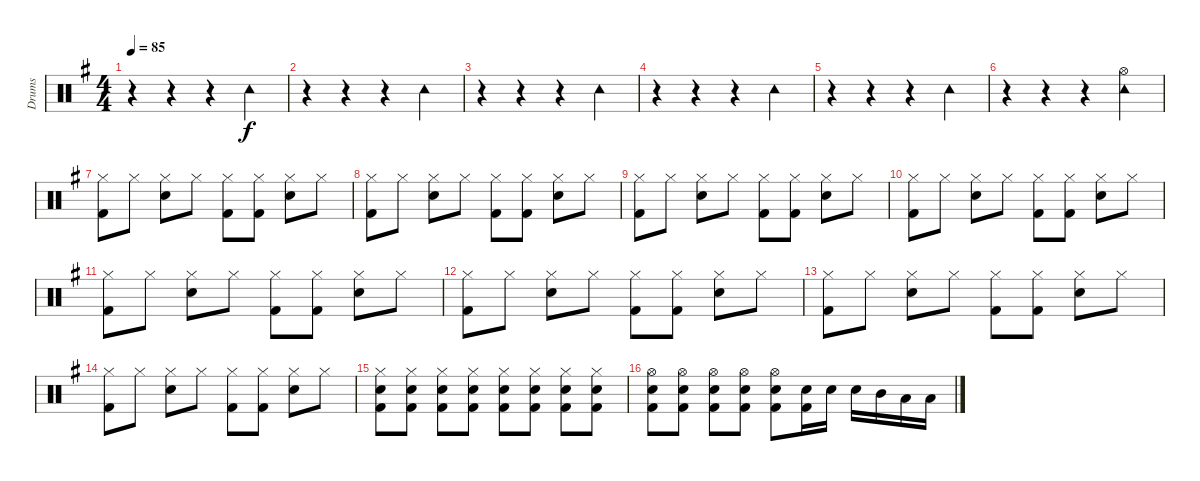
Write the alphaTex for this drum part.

\track ("Drums" "Drums") {instrument percussion}
\staff {score}
\articulation defaults
\ts (4 4)
\tempo 85
\clef neutral
\ks g
r.4{dy f} r.4 r.4 "Tambourine (hit)".4 |
r.4 r.4 r.4 "Tambourine (hit)".4 |
r.4 r.4 r.4 "Tambourine (hit)".4 |
r.4 r.4 r.4 "Tambourine (hit)".4 |
r.4 r.4 r.4 "Tambourine (hit)".4 |
r.4{volume 12} r.4 r.4 ("Hi-Hat (open)" "Tambourine (hit)").4 |
("Hi-Hat (closed)" "Kick (hit) 2").8 "Hi-Hat (closed)".8 ("Hi-Hat (closed)" "Snare (hit) 2").8 "Hi-Hat (closed)".8 ("Hi-Hat (closed)" "Kick (hit) 2").8 ("Hi-Hat (closed)" "Kick (hit) 2").8 ("Hi-Hat (closed)" "Snare (hit) 2").8 "Hi-Hat (closed)".8 |
("Hi-Hat (closed)" "Kick (hit) 2").8 "Hi-Hat (closed)".8 ("Hi-Hat (closed)" "Snare (hit) 2").8 "Hi-Hat (closed)".8 ("Hi-Hat (closed)" "Kick (hit) 2").8 ("Hi-Hat (closed)" "Kick (hit) 2").8 ("Hi-Hat (closed)" "Snare (hit) 2").8 "Hi-Hat (closed)".8 |
("Hi-Hat (closed)" "Kick (hit) 2").8 "Hi-Hat (closed)".8 ("Hi-Hat (closed)" "Snare (hit) 2").8 "Hi-Hat (closed)".8 ("Hi-Hat (closed)" "Kick (hit) 2").8 ("Hi-Hat (closed)" "Kick (hit) 2").8 ("Hi-Hat (closed)" "Snare (hit) 2").8 "Hi-Hat (closed)".8 |
("Hi-Hat (closed)" "Kick (hit) 2").8 "Hi-Hat (closed)".8 ("Hi-Hat (closed)" "Snare (hit) 2").8 "Hi-Hat (closed)".8 ("Hi-Hat (closed)" "Kick (hit) 2").8 ("Hi-Hat (closed)" "Kick (hit) 2").8 ("Hi-Hat (closed)" "Snare (hit) 2").8 "Hi-Hat (closed)".8 |
("Hi-Hat (closed)" "Kick (hit) 2").8 "Hi-Hat (closed)".8 ("Hi-Hat (closed)" "Snare (hit) 2").8 "Hi-Hat (closed)".8 ("Hi-Hat (closed)" "Kick (hit) 2").8 ("Hi-Hat (closed)" "Kick (hit) 2").8 ("Hi-Hat (closed)" "Snare (hit) 2").8 "Hi-Hat (closed)".8 |
("Hi-Hat (closed)" "Kick (hit) 2").8 "Hi-Hat (closed)".8 ("Hi-Hat (closed)" "Snare (hit) 2").8 "Hi-Hat (closed)".8 ("Hi-Hat (closed)" "Kick (hit) 2").8 ("Hi-Hat (closed)" "Kick (hit) 2").8 ("Hi-Hat (closed)" "Snare (hit) 2").8 "Hi-Hat (closed)".8 |
("Hi-Hat (closed)" "Kick (hit) 2").8 "Hi-Hat (closed)".8 ("Hi-Hat (closed)" "Snare (hit) 2").8 "Hi-Hat (closed)".8 ("Hi-Hat (closed)" "Kick (hit) 2").8 ("Hi-Hat (closed)" "Kick (hit) 2").8 ("Hi-Hat (closed)" "Snare (hit) 2").8 "Hi-Hat (closed)".8 |
("Hi-Hat (closed)" "Kick (hit) 2").8 "Hi-Hat (closed)".8 ("Hi-Hat (closed)" "Snare (hit) 2").8 "Hi-Hat (closed)".8 ("Hi-Hat (closed)" "Kick (hit) 2").8 ("Hi-Hat (closed)" "Kick (hit) 2").8 ("Hi-Hat (closed)" "Snare (hit) 2").8 "Hi-Hat (closed)".8 |
("Hi-Hat (closed)" "Snare (hit) 2" "Kick (hit) 2").8{volume 12} ("Hi-Hat (closed)" "Snare (hit) 2" "Kick (hit) 2").8{volume 15} ("Hi-Hat (closed)" "Snare (hit) 2" "Kick (hit) 2").8 ("Hi-Hat (closed)" "Snare (hit) 2" "Kick (hit) 2").8 ("Hi-Hat (closed)" "Snare (hit) 2" "Kick (hit) 2").8 ("Hi-Hat (closed)" "Snare (hit) 2" "Kick (hit) 2").8 ("Hi-Hat (closed)" "Snare (hit) 2" "Kick (hit) 2").8 ("Hi-Hat (closed)" "Snare (hit) 2" "Kick (hit) 2").8 |
("Hi-Hat (open)" "Snare (hit) 2" "Kick (hit) 2").8 ("Hi-Hat (open)" "Snare (hit) 2" "Kick (hit) 2").8 ("Hi-Hat (open)" "Snare (hit) 2" "Kick (hit) 2").8 ("Hi-Hat (open)" "Snare (hit) 2" "Kick (hit) 2").8 ("Hi-Hat (open)" "Snare (hit) 2" "Kick (hit) 2").8 ("Snare (hit) 2" "Kick (hit) 2").16 "Snare (hit) 2".16 "Snare (hit) 2".16 "Mid Tom (hit)".16 "Low Tom (hit)".16 "Low Tom (hit)".16
